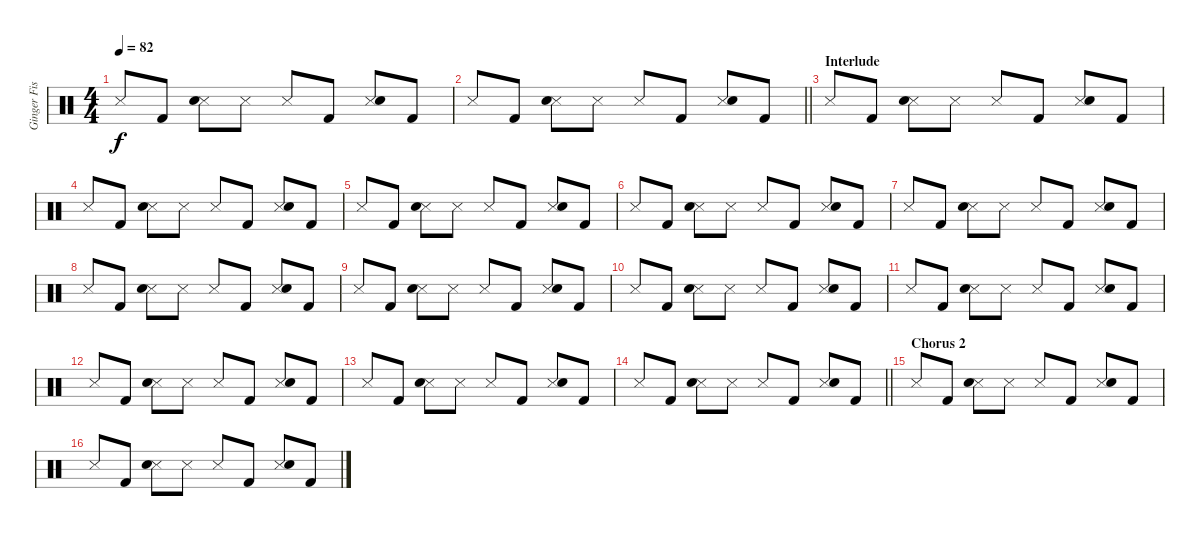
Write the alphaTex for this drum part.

\track ("Ginger Fish" "Ginger Fis") {instrument percussion}
\staff {score}
\articulation defaults
\ts (4 4)
\tempo 82
\clef neutral
\ks c "Metronome (hit)".8{dy f} "Kick (hit) 2".8
("Metronome (hit)" "Snare (hit) 2").8 "Metronome (hit)".8 "Metronome (hit)".8 "Kick (hit) 2".8 ("Metronome (hit)" "Snare (hit) 2").8 "Kick (hit) 2".8 |
\barLineRight lightlight "Metronome (hit)".8 "Kick (hit) 2".8
("Metronome (hit)" "Snare (hit) 2").8 "Metronome (hit)".8 "Metronome (hit)".8 "Kick (hit) 2".8 ("Metronome (hit)" "Snare (hit) 2").8 "Kick (hit) 2".8 |
\section ("" "Interlude ")
"Metronome (hit)".8 "Kick (hit) 2".8 ("Metronome (hit)" "Snare (hit) 2").8 "Metronome (hit)".8 "Metronome (hit)".8 "Kick (hit) 2".8 ("Metronome (hit)" "Snare (hit) 2").8 "Kick (hit) 2".8 |
"Metronome (hit)".8 "Kick (hit) 2".8 ("Metronome (hit)" "Snare (hit) 2").8 "Metronome (hit)".8 "Metronome (hit)".8 "Kick (hit) 2".8 ("Metronome (hit)" "Snare (hit) 2").8 "Kick (hit) 2".8 |
"Metronome (hit)".8 "Kick (hit) 2".8 ("Metronome (hit)" "Snare (hit) 2").8 "Metronome (hit)".8 "Metronome (hit)".8 "Kick (hit) 2".8 ("Metronome (hit)" "Snare (hit) 2").8 "Kick (hit) 2".8 |
"Metronome (hit)".8 "Kick (hit) 2".8 ("Metronome (hit)" "Snare (hit) 2").8 "Metronome (hit)".8 "Metronome (hit)".8 "Kick (hit) 2".8 ("Metronome (hit)" "Snare (hit) 2").8 "Kick (hit) 2".8 |
"Metronome (hit)".8 "Kick (hit) 2".8 ("Metronome (hit)" "Snare (hit) 2").8 "Metronome (hit)".8 "Metronome (hit)".8 "Kick (hit) 2".8 ("Metronome (hit)" "Snare (hit) 2").8 "Kick (hit) 2".8 |
"Metronome (hit)".8 "Kick (hit) 2".8 ("Metronome (hit)" "Snare (hit) 2").8 "Metronome (hit)".8 "Metronome (hit)".8 "Kick (hit) 2".8 ("Metronome (hit)" "Snare (hit) 2").8 "Kick (hit) 2".8 |
"Metronome (hit)".8 "Kick (hit) 2".8 ("Metronome (hit)" "Snare (hit) 2").8 "Metronome (hit)".8 "Metronome (hit)".8 "Kick (hit) 2".8 ("Metronome (hit)" "Snare (hit) 2").8 "Kick (hit) 2".8 |
"Metronome (hit)".8 "Kick (hit) 2".8 ("Metronome (hit)" "Snare (hit) 2").8 "Metronome (hit)".8 "Metronome (hit)".8 "Kick (hit) 2".8 ("Metronome (hit)" "Snare (hit) 2").8 "Kick (hit) 2".8 |
"Metronome (hit)".8 "Kick (hit) 2".8 ("Metronome (hit)" "Snare (hit) 2").8 "Metronome (hit)".8 "Metronome (hit)".8 "Kick (hit) 2".8 ("Metronome (hit)" "Snare (hit) 2").8 "Kick (hit) 2".8 |
"Metronome (hit)".8 "Kick (hit) 2".8 ("Metronome (hit)" "Snare (hit) 2").8 "Metronome (hit)".8 "Metronome (hit)".8 "Kick (hit) 2".8 ("Metronome (hit)" "Snare (hit) 2").8 "Kick (hit) 2".8 |
"Metronome (hit)".8 "Kick (hit) 2".8 ("Metronome (hit)" "Snare (hit) 2").8 "Metronome (hit)".8 "Metronome (hit)".8 "Kick (hit) 2".8 ("Metronome (hit)" "Snare (hit) 2").8 "Kick (hit) 2".8 |
\barLineRight lightlight "Metronome (hit)".8 "Kick (hit) 2".8
("Metronome (hit)" "Snare (hit) 2").8 "Metronome (hit)".8 "Metronome (hit)".8 "Kick (hit) 2".8 ("Metronome (hit)" "Snare (hit) 2").8 "Kick (hit) 2".8 |
\section ("" "Chorus 2")
"Metronome (hit)".8 "Kick (hit) 2".8 ("Metronome (hit)" "Snare (hit) 2").8 "Metronome (hit)".8 "Metronome (hit)".8 "Kick (hit) 2".8 ("Metronome (hit)" "Snare (hit) 2").8 "Kick (hit) 2".8 |
"Metronome (hit)".8 "Kick (hit) 2".8 ("Metronome (hit)" "Snare (hit) 2").8 "Metronome (hit)".8 "Metronome (hit)".8 "Kick (hit) 2".8 ("Metronome (hit)" "Snare (hit) 2").8 "Kick (hit) 2".8
